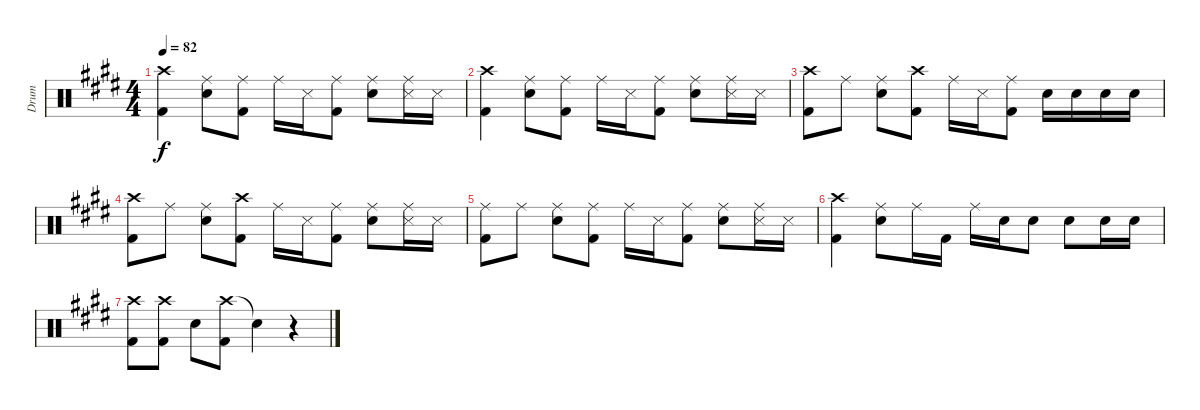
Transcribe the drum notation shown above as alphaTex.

\track ("Drum" "Drum") {instrument percussion}
\staff {score}
\articulation defaults
\ts (4 4)
\tempo 82
\clef neutral
\ks e
("Crash high (hit)" "Kick (hit) 2").4{dy f} ("Ride (middle)" "Snare (hit) 2").8 ("Ride (middle)" "Kick (hit) 2").8 "Ride (middle)".16 "Snare (side stick) 3".16 ("Ride (middle)" "Kick (hit) 2").8 ("Ride (middle)" "Snare (hit) 2").8 ("Ride (middle)" "Snare (side stick) 3").16 "Snare (side stick) 3".16 |
("Crash high (hit)" "Kick (hit) 2").4 ("Ride (middle)" "Snare (hit) 2").8 ("Ride (middle)" "Kick (hit) 2").8 "Ride (middle)".16 "Snare (side stick) 3".16 ("Ride (middle)" "Kick (hit) 2").8 ("Ride (middle)" "Snare (hit) 2").8 ("Ride (middle)" "Snare (side stick) 3").16 "Snare (side stick) 3".16 |
("Crash high (hit)" "Kick (hit) 2").8 "Ride (middle)".8 ("Ride (middle)" "Snare (hit) 2").8 ("Crash high (hit)" "Kick (hit) 2").8 "Ride (middle)".16 "Snare (side stick) 3".16 ("Ride (middle)" "Kick (hit) 2").8 "Snare (hit) 2".16 "Snare (hit) 2".16 "Snare (hit) 2".16 "Snare (hit) 2".16 |
("Crash high (hit)" "Kick (hit) 2").8 "Ride (middle)".8 ("Ride (middle)" "Snare (hit) 2").8 ("Crash high (hit)" "Kick (hit) 2").8 "Ride (middle)".16 "Snare (side stick) 3".16 ("Ride (middle)" "Kick (hit) 2").8 ("Ride (middle)" "Snare (hit) 2").8 ("Ride (middle)" "Snare (side stick) 3").16 "Snare (side stick) 3".16 |
("Ride (middle)" "Kick (hit) 2").8 "Ride (middle)".8 ("Ride (middle)" "Snare (hit) 2").8 ("Ride (middle)" "Kick (hit) 2").8 "Ride (middle)".16 "Snare (side stick) 3".16 ("Ride (middle)" "Kick (hit) 2").8 ("Ride (middle)" "Snare (hit) 2").8 ("Ride (middle)" "Snare (side stick) 3").16 "Snare (side stick) 3".16 |
("Crash high (hit)" "Kick (hit) 2").4 ("Ride (middle)" "Snare (hit) 2").8 "Ride (middle)".16 "Kick (hit) 2".16 "Ride (middle)".16 "Snare (hit) 2".16 "Snare (hit) 2".8 "Snare (hit) 2".8 "Snare (hit) 2".16 "Snare (hit) 2".16 |
("Crash high (hit)" "Kick (hit) 2").8 ("Crash high (hit)" "Kick (hit) 2").8 "Snare (hit) 2".8 ("Crash high (hit)" "Kick (hit) 2").8 "Snare (hit)"{t}.4 r.4
